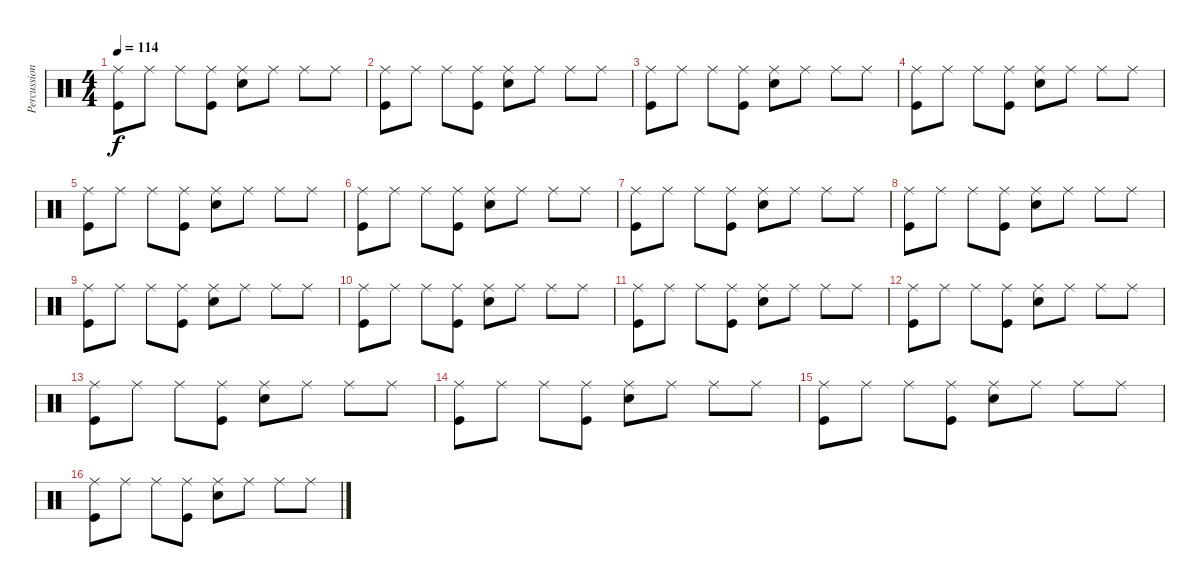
\track ("Percussion" "Percussion") {instrument percussion}
\staff {score}
\articulation defaults
\ts (4 4)
\tempo 114
\clef neutral
\ks c
("Ride (middle)" "Kick (hit)").8{dy f} "Ride (middle)".8 "Ride (middle)".8 ("Ride (middle)" "Kick (hit)").8 ("Ride (middle)" "Snare (hit) 2").8 "Ride (middle)".8 "Ride (middle)".8 "Ride (middle)".8 |
("Ride (middle)" "Kick (hit)").8 "Ride (middle)".8 "Ride (middle)".8 ("Ride (middle)" "Kick (hit)").8 ("Ride (middle)" "Snare (hit) 2").8 "Ride (middle)".8 "Ride (middle)".8 "Ride (middle)".8 |
("Ride (middle)" "Kick (hit)").8 "Ride (middle)".8 "Ride (middle)".8 ("Ride (middle)" "Kick (hit)").8 ("Ride (middle)" "Snare (hit) 2").8 "Ride (middle)".8 "Ride (middle)".8 "Ride (middle)".8 |
("Ride (middle)" "Kick (hit)").8 "Ride (middle)".8 "Ride (middle)".8 ("Ride (middle)" "Kick (hit)").8 ("Ride (middle)" "Snare (hit) 2").8 "Ride (middle)".8 "Ride (middle)".8 "Ride (middle)".8 |
("Ride (middle)" "Kick (hit)").8 "Ride (middle)".8 "Ride (middle)".8 ("Ride (middle)" "Kick (hit)").8 ("Ride (middle)" "Snare (hit) 2").8 "Ride (middle)".8 "Ride (middle)".8 "Ride (middle)".8 |
("Ride (middle)" "Kick (hit)").8 "Ride (middle)".8 "Ride (middle)".8 ("Ride (middle)" "Kick (hit)").8 ("Ride (middle)" "Snare (hit) 2").8 "Ride (middle)".8 "Ride (middle)".8 "Ride (middle)".8 |
("Ride (middle)" "Kick (hit)").8 "Ride (middle)".8 "Ride (middle)".8 ("Ride (middle)" "Kick (hit)").8 ("Ride (middle)" "Snare (hit) 2").8 "Ride (middle)".8 "Ride (middle)".8 "Ride (middle)".8 |
("Ride (middle)" "Kick (hit)").8 "Ride (middle)".8 "Ride (middle)".8 ("Ride (middle)" "Kick (hit)").8 ("Ride (middle)" "Snare (hit) 2").8 "Ride (middle)".8 "Ride (middle)".8 "Ride (middle)".8 |
("Ride (middle)" "Kick (hit)").8 "Ride (middle)".8 "Ride (middle)".8 ("Ride (middle)" "Kick (hit)").8 ("Ride (middle)" "Snare (hit) 2").8 "Ride (middle)".8 "Ride (middle)".8 "Ride (middle)".8 |
("Ride (middle)" "Kick (hit)").8 "Ride (middle)".8 "Ride (middle)".8 ("Ride (middle)" "Kick (hit)").8 ("Ride (middle)" "Snare (hit) 2").8 "Ride (middle)".8 "Ride (middle)".8 "Ride (middle)".8 |
("Ride (middle)" "Kick (hit)").8 "Ride (middle)".8 "Ride (middle)".8 ("Ride (middle)" "Kick (hit)").8 ("Ride (middle)" "Snare (hit) 2").8 "Ride (middle)".8 "Ride (middle)".8 "Ride (middle)".8 |
("Ride (middle)" "Kick (hit)").8 "Ride (middle)".8 "Ride (middle)".8 ("Ride (middle)" "Kick (hit)").8 ("Ride (middle)" "Snare (hit) 2").8 "Ride (middle)".8 "Ride (middle)".8 "Ride (middle)".8 |
("Ride (middle)" "Kick (hit)").8 "Ride (middle)".8 "Ride (middle)".8 ("Ride (middle)" "Kick (hit)").8 ("Ride (middle)" "Snare (hit) 2").8 "Ride (middle)".8 "Ride (middle)".8 "Ride (middle)".8 |
("Ride (middle)" "Kick (hit)").8 "Ride (middle)".8 "Ride (middle)".8 ("Ride (middle)" "Kick (hit)").8 ("Ride (middle)" "Snare (hit) 2").8 "Ride (middle)".8 "Ride (middle)".8 "Ride (middle)".8 |
("Ride (middle)" "Kick (hit)").8 "Ride (middle)".8 "Ride (middle)".8 ("Ride (middle)" "Kick (hit)").8 ("Ride (middle)" "Snare (hit) 2").8 "Ride (middle)".8 "Ride (middle)".8 "Ride (middle)".8 |
("Ride (middle)" "Kick (hit)").8 "Ride (middle)".8 "Ride (middle)".8 ("Ride (middle)" "Kick (hit)").8 ("Ride (middle)" "Snare (hit) 2").8 "Ride (middle)".8 "Ride (middle)".8 "Ride (middle)".8
